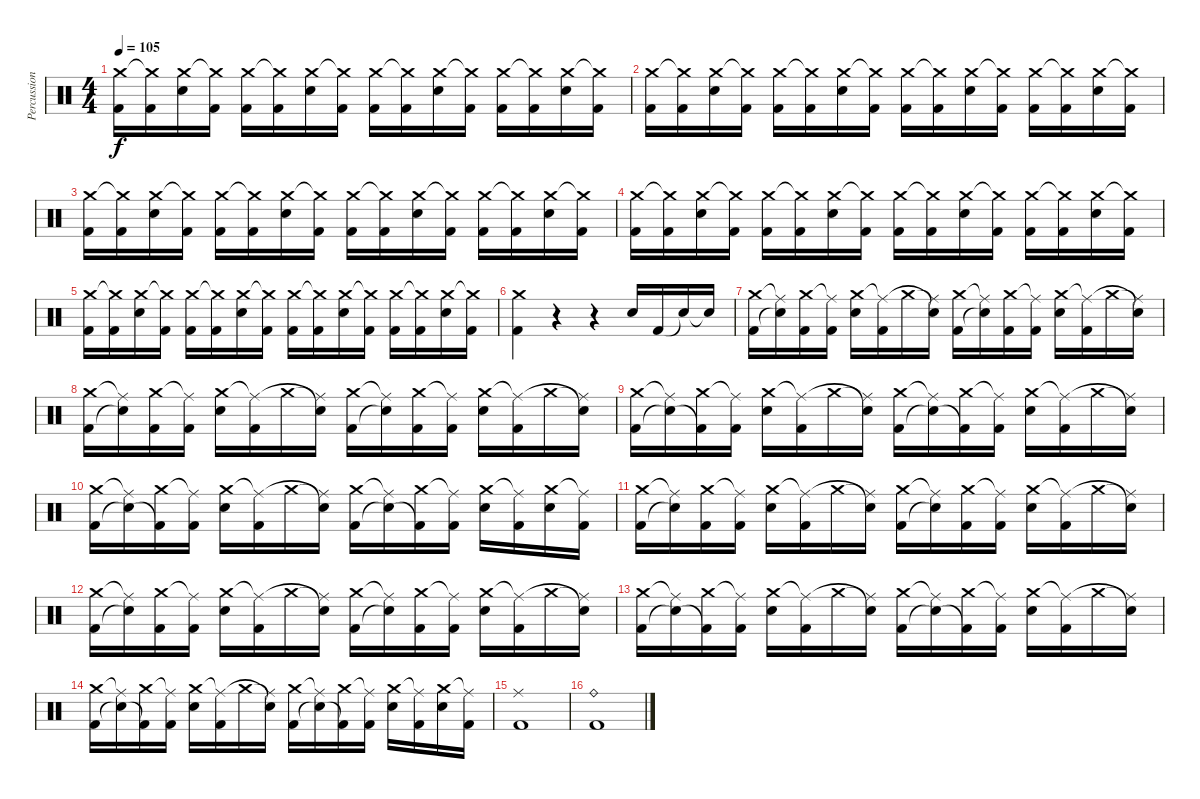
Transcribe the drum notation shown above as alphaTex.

\track ("Percussions" "Percussion") {instrument percussion}
\staff {score}
\articulation defaults
\ts (4 4)
\tempo 105
\clef neutral
\ks c
("Kick (hit) 2" "Crash medium (hit)").16{dy f} ("Kick (hit) 2" "Crash medium (hit)"{t}).16 ("Electric Snare (hit)" "Crash medium (hit)").16 ("Kick (hit) 2" "Crash medium (hit)"{t}).16 ("Kick (hit) 2" "Crash medium (hit)").16 ("Kick (hit) 2" "Crash medium (hit)"{t}).16 ("Electric Snare (hit)" "Crash medium (hit)").16 ("Kick (hit) 2" "Crash medium (hit)"{t}).16 ("Kick (hit) 2" "Crash medium (hit)").16 ("Kick (hit) 2" "Crash medium (hit)"{t}).16 ("Electric Snare (hit)" "Crash medium (hit)").16 ("Kick (hit) 2" "Crash medium (hit)"{t}).16 ("Kick (hit) 2" "Crash medium (hit)").16 ("Kick (hit) 2" "Crash medium (hit)"{t}).16 ("Electric Snare (hit)" "Crash medium (hit)").16 ("Kick (hit) 2" "Crash medium (hit)"{t}).16 |
("Kick (hit) 2" "Crash medium (hit)").16 ("Kick (hit) 2" "Crash medium (hit)"{t}).16 ("Electric Snare (hit)" "Crash medium (hit)").16 ("Kick (hit) 2" "Crash medium (hit)"{t}).16 ("Kick (hit) 2" "Crash medium (hit)").16 ("Kick (hit) 2" "Crash medium (hit)"{t}).16 ("Electric Snare (hit)" "Crash medium (hit)").16 ("Kick (hit) 2" "Crash medium (hit)"{t}).16 ("Kick (hit) 2" "Crash medium (hit)").16 ("Kick (hit) 2" "Crash medium (hit)"{t}).16 ("Electric Snare (hit)" "Crash medium (hit)").16 ("Kick (hit) 2" "Crash medium (hit)"{t}).16 ("Kick (hit) 2" "Crash medium (hit)").16 ("Kick (hit) 2" "Crash medium (hit)"{t}).16 ("Electric Snare (hit)" "Crash medium (hit)").16 ("Kick (hit) 2" "Crash medium (hit)"{t}).16 |
("Kick (hit) 2" "Crash medium (hit)").16 ("Kick (hit) 2" "Crash medium (hit)"{t}).16 ("Electric Snare (hit)" "Crash medium (hit)").16 ("Kick (hit) 2" "Crash medium (hit)"{t}).16 ("Kick (hit) 2" "Crash medium (hit)").16 ("Kick (hit) 2" "Crash medium (hit)"{t}).16 ("Electric Snare (hit)" "Crash medium (hit)").16 ("Kick (hit) 2" "Crash medium (hit)"{t}).16 ("Kick (hit) 2" "Crash medium (hit)").16 ("Kick (hit) 2" "Crash medium (hit)"{t}).16 ("Electric Snare (hit)" "Crash medium (hit)").16 ("Kick (hit) 2" "Crash medium (hit)"{t}).16 ("Kick (hit) 2" "Crash medium (hit)").16 ("Kick (hit) 2" "Crash medium (hit)"{t}).16 ("Electric Snare (hit)" "Crash medium (hit)").16 ("Kick (hit) 2" "Crash medium (hit)"{t}).16 |
("Kick (hit) 2" "Crash medium (hit)").16 ("Kick (hit) 2" "Crash medium (hit)"{t}).16 ("Electric Snare (hit)" "Crash medium (hit)").16 ("Kick (hit) 2" "Crash medium (hit)"{t}).16 ("Kick (hit) 2" "Crash medium (hit)").16 ("Kick (hit) 2" "Crash medium (hit)"{t}).16 ("Electric Snare (hit)" "Crash medium (hit)").16 ("Kick (hit) 2" "Crash medium (hit)"{t}).16 ("Kick (hit) 2" "Crash medium (hit)").16 ("Kick (hit) 2" "Crash medium (hit)"{t}).16 ("Electric Snare (hit)" "Crash medium (hit)").16 ("Kick (hit) 2" "Crash medium (hit)"{t}).16 ("Kick (hit) 2" "Crash medium (hit)").16 ("Kick (hit) 2" "Crash medium (hit)"{t}).16 ("Electric Snare (hit)" "Crash medium (hit)").16 ("Kick (hit) 2" "Crash medium (hit)"{t}).16 |
("Kick (hit) 2" "Crash medium (hit)").16 ("Kick (hit) 2" "Crash medium (hit)"{t}).16 ("Electric Snare (hit)" "Crash medium (hit)").16 ("Kick (hit) 2" "Crash medium (hit)"{t}).16 ("Kick (hit) 2" "Crash medium (hit)").16 ("Kick (hit) 2" "Crash medium (hit)"{t}).16 ("Electric Snare (hit)" "Crash medium (hit)").16 ("Kick (hit) 2" "Crash medium (hit)"{t}).16 ("Kick (hit) 2" "Crash medium (hit)").16 ("Kick (hit) 2" "Crash medium (hit)"{t}).16 ("Electric Snare (hit)" "Crash medium (hit)").16 ("Kick (hit) 2" "Crash medium (hit)"{t}).16 ("Kick (hit) 2" "Crash medium (hit)").16 ("Kick (hit) 2" "Crash medium (hit)"{t}).16 ("Electric Snare (hit)" "Crash medium (hit)").16 ("Kick (hit) 2" "Crash medium (hit)"{t}).16 |
("Crash medium (hit)" "Kick (hit) 2").4 r.4 r.4 "Electric Snare (hit)".16 "Kick (hit) 2".16 "Snare (hit)"{t}.16 "Snare (hit)"{t}.16 |
("Kick (hit) 2" "Crash medium (hit)").16 ("Snare (hit)"{t} "Ride (middle)"{t}).16 ("Kick (hit) 2" "Crash medium (hit)").16 ("Kick (hit) 2" "Ride (middle)"{t}).16 ("Electric Snare (hit)" "Crash medium (hit)").16 ("Kick (hit) 2" "Ride (middle)"{t}).16 "Crash medium (hit)".16 ("Snare (hit)"{t} "Ride (middle)"{t}).16 ("Kick (hit) 2" "Crash medium (hit)").16 ("Snare (hit)"{t} "Ride (middle)"{t}).16 ("Kick (hit) 2" "Crash medium (hit)").16 ("Kick (hit) 2" "Ride (middle)"{t}).16 ("Electric Snare (hit)" "Crash medium (hit)").16 ("Kick (hit) 2" "Ride (middle)"{t}).16 "Crash medium (hit)".16 ("Snare (hit)"{t} "Ride (middle)"{t}).16 |
("Kick (hit) 2" "Crash medium (hit)").16 ("Snare (hit)"{t} "Ride (middle)"{t}).16 ("Kick (hit) 2" "Crash medium (hit)").16 ("Kick (hit) 2" "Ride (middle)"{t}).16 ("Electric Snare (hit)" "Crash medium (hit)").16 ("Kick (hit) 2" "Ride (middle)"{t}).16 "Crash medium (hit)".16 ("Snare (hit)"{t} "Ride (middle)"{t}).16 ("Kick (hit) 2" "Crash medium (hit)").16 ("Snare (hit)"{t} "Ride (middle)"{t}).16 ("Kick (hit) 2" "Crash medium (hit)").16 ("Kick (hit) 2" "Ride (middle)"{t}).16 ("Electric Snare (hit)" "Crash medium (hit)").16 ("Kick (hit) 2" "Ride (middle)"{t}).16 "Crash medium (hit)".16 ("Snare (hit)"{t} "Ride (middle)"{t}).16 |
("Kick (hit) 2" "Crash medium (hit)").16 ("Snare (hit)"{t} "Ride (middle)"{t}).16 ("Kick (hit) 2"{t} "Crash medium (hit)").16 ("Kick (hit) 2" "Ride (middle)"{t}).16 ("Electric Snare (hit)" "Crash medium (hit)").16 ("Kick (hit) 2" "Ride (middle)"{t}).16 "Crash medium (hit)".16 ("Snare (hit)"{t} "Ride (middle)"{t}).16 ("Kick (hit) 2" "Crash medium (hit)").16 ("Snare (hit)"{t} "Ride (middle)"{t}).16 ("Kick (hit) 2"{t} "Crash medium (hit)").16 ("Kick (hit) 2" "Ride (middle)"{t}).16 ("Electric Snare (hit)" "Crash medium (hit)").16 ("Kick (hit) 2" "Ride (middle)"{t}).16 "Crash medium (hit)".16 ("Snare (hit)"{t} "Ride (middle)"{t}).16 |
("Kick (hit) 2" "Crash medium (hit)").16 ("Snare (hit)"{t} "Ride (middle)"{t}).16 ("Kick (hit) 2"{t} "Crash medium (hit)").16 ("Kick (hit) 2" "Ride (middle)"{t}).16 ("Electric Snare (hit)" "Crash medium (hit)").16 ("Kick (hit) 2" "Ride (middle)"{t}).16 "Crash medium (hit)".16 ("Snare (hit)"{t} "Ride (middle)"{t}).16 ("Kick (hit) 2" "Crash medium (hit)").16 ("Snare (hit)"{t} "Ride (middle)"{t}).16 ("Kick (hit) 2"{t} "Crash medium (hit)").16 ("Kick (hit) 2" "Ride (middle)"{t}).16 ("Electric Snare (hit)" "Crash medium (hit)").16 ("Kick (hit) 2" "Ride (middle)"{t}).16 ("Electric Snare (hit)" "Crash medium (hit)").16 ("Kick (hit) 2" "Ride (middle)"{t}).16 |
("Kick (hit) 2" "Crash medium (hit)").16 ("Snare (hit)"{t} "Ride (middle)"{t}).16 ("Kick (hit) 2" "Crash medium (hit)").16 ("Kick (hit) 2" "Ride (middle)"{t}).16 ("Electric Snare (hit)" "Crash medium (hit)").16 ("Kick (hit) 2" "Ride (middle)"{t}).16 "Crash medium (hit)".16 ("Snare (hit)"{t} "Ride (middle)"{t}).16 ("Kick (hit) 2" "Crash medium (hit)").16 ("Snare (hit)"{t} "Ride (middle)"{t}).16 ("Kick (hit) 2" "Crash medium (hit)").16 ("Kick (hit) 2" "Ride (middle)"{t}).16 ("Electric Snare (hit)" "Crash medium (hit)").16 ("Kick (hit) 2" "Ride (middle)"{t}).16 "Crash medium (hit)".16 ("Snare (hit)"{t} "Ride (middle)"{t}).16 |
("Kick (hit) 2" "Crash medium (hit)").16 ("Snare (hit)"{t} "Ride (middle)"{t}).16 ("Kick (hit) 2" "Crash medium (hit)").16 ("Kick (hit) 2" "Ride (middle)"{t}).16 ("Electric Snare (hit)" "Crash medium (hit)").16 ("Kick (hit) 2" "Ride (middle)"{t}).16 "Crash medium (hit)".16 ("Snare (hit)"{t} "Ride (middle)"{t}).16 ("Kick (hit) 2" "Crash medium (hit)").16 ("Snare (hit)"{t} "Ride (middle)"{t}).16 ("Kick (hit) 2" "Crash medium (hit)").16 ("Kick (hit) 2" "Ride (middle)"{t}).16 ("Electric Snare (hit)" "Crash medium (hit)").16 ("Kick (hit) 2" "Ride (middle)"{t}).16 "Crash medium (hit)".16 ("Snare (hit)"{t} "Ride (middle)"{t}).16 |
("Kick (hit) 2" "Crash medium (hit)").16 ("Snare (hit)"{t} "Ride (middle)"{t}).16 ("Kick (hit) 2"{t} "Crash medium (hit)").16 ("Kick (hit) 2" "Ride (middle)"{t}).16 ("Electric Snare (hit)" "Crash medium (hit)").16 ("Kick (hit) 2" "Ride (middle)"{t}).16 "Crash medium (hit)".16 ("Snare (hit)"{t} "Ride (middle)"{t}).16 ("Kick (hit) 2" "Crash medium (hit)").16 ("Snare (hit)"{t} "Ride (middle)"{t}).16 ("Kick (hit) 2"{t} "Crash medium (hit)").16 ("Kick (hit) 2" "Ride (middle)"{t}).16 ("Electric Snare (hit)" "Crash medium (hit)").16 ("Kick (hit) 2" "Ride (middle)"{t}).16 "Crash medium (hit)".16 ("Snare (hit)"{t} "Ride (middle)"{t}).16 |
("Kick (hit) 2" "Crash medium (hit)").16 ("Snare (hit)"{t} "Ride (middle)"{t}).16 ("Kick (hit) 2"{t} "Crash medium (hit)").16 ("Kick (hit) 2" "Ride (middle)"{t}).16 ("Electric Snare (hit)" "Crash medium (hit)").16 ("Kick (hit) 2" "Ride (middle)"{t}).16 "Crash medium (hit)".16 ("Snare (hit)"{t} "Ride (middle)"{t}).16 ("Kick (hit) 2" "Crash medium (hit)").16 ("Snare (hit)"{t} "Ride (middle)"{t}).16 ("Kick (hit) 2"{t} "Crash medium (hit)").16 ("Kick (hit) 2" "Ride (middle)"{t}).16 ("Electric Snare (hit)" "Crash medium (hit)").16 ("Kick (hit) 2" "Ride (middle)"{t}).16 ("Electric Snare (hit)" "Crash medium (hit)").16 ("Kick (hit) 2" "Ride (middle)"{t}).16 |
("Ride (middle)" "Kick (hit) 2").1 |
("Ride (bell)" "Kick (hit) 2").1
